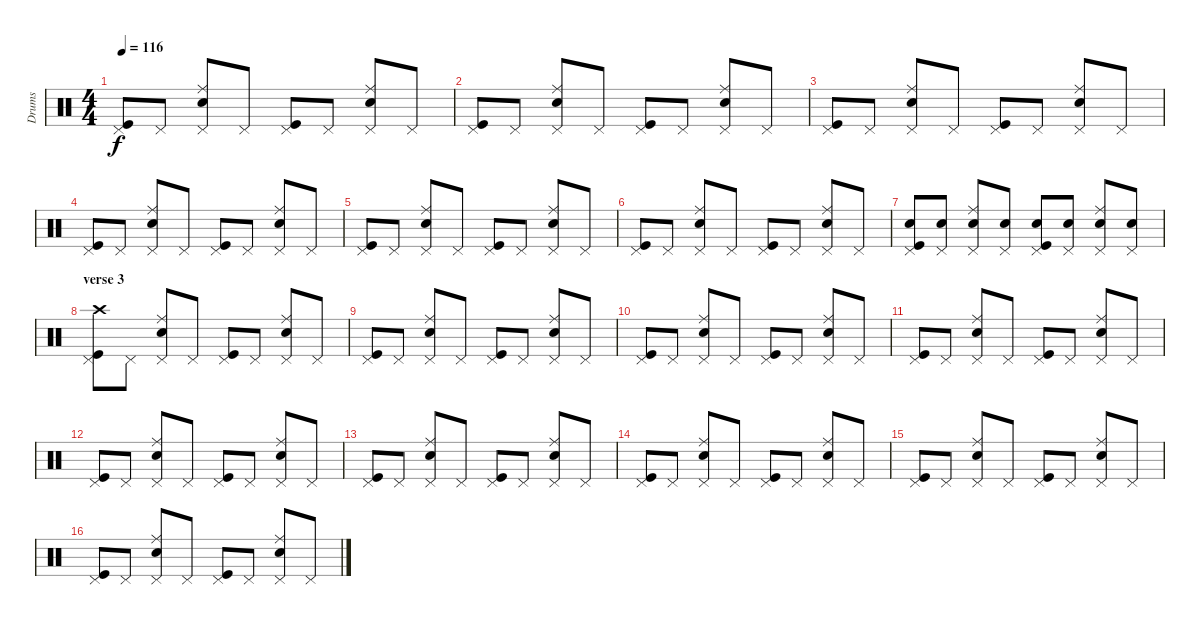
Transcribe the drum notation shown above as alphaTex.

\track ("Drums" "Drums") {instrument percussion}
\staff {score}
\articulation defaults
\ts (4 4)
\tempo 116
\clef neutral
\ks c
("Pedal Hi-Hat (hit)" "Kick (hit)").8{dy f} "Pedal Hi-Hat (hit)".8 ("Ride (middle)" "Electric Snare (hit)" "Pedal Hi-Hat (hit)").8 "Pedal Hi-Hat (hit)".8 ("Pedal Hi-Hat (hit)" "Kick (hit)").8 "Pedal Hi-Hat (hit)".8 ("Ride (middle)" "Electric Snare (hit)" "Pedal Hi-Hat (hit)").8 "Pedal Hi-Hat (hit)".8 |
("Pedal Hi-Hat (hit)" "Kick (hit)").8 "Pedal Hi-Hat (hit)".8 ("Ride (middle)" "Electric Snare (hit)" "Pedal Hi-Hat (hit)").8 "Pedal Hi-Hat (hit)".8 ("Pedal Hi-Hat (hit)" "Kick (hit)").8 "Pedal Hi-Hat (hit)".8 ("Ride (middle)" "Electric Snare (hit)" "Pedal Hi-Hat (hit)").8 "Pedal Hi-Hat (hit)".8 |
("Pedal Hi-Hat (hit)" "Kick (hit)").8 "Pedal Hi-Hat (hit)".8 ("Ride (middle)" "Electric Snare (hit)" "Pedal Hi-Hat (hit)").8 "Pedal Hi-Hat (hit)".8 ("Pedal Hi-Hat (hit)" "Kick (hit)").8 "Pedal Hi-Hat (hit)".8 ("Ride (middle)" "Electric Snare (hit)" "Pedal Hi-Hat (hit)").8 "Pedal Hi-Hat (hit)".8 |
("Pedal Hi-Hat (hit)" "Kick (hit)").8 "Pedal Hi-Hat (hit)".8 ("Ride (middle)" "Electric Snare (hit)" "Pedal Hi-Hat (hit)").8 "Pedal Hi-Hat (hit)".8 ("Pedal Hi-Hat (hit)" "Kick (hit)").8 "Pedal Hi-Hat (hit)".8 ("Ride (middle)" "Electric Snare (hit)" "Pedal Hi-Hat (hit)").8 "Pedal Hi-Hat (hit)".8 |
("Pedal Hi-Hat (hit)" "Kick (hit)").8 "Pedal Hi-Hat (hit)".8 ("Ride (middle)" "Electric Snare (hit)" "Pedal Hi-Hat (hit)").8 "Pedal Hi-Hat (hit)".8 ("Pedal Hi-Hat (hit)" "Kick (hit)").8 "Pedal Hi-Hat (hit)".8 ("Ride (middle)" "Electric Snare (hit)" "Pedal Hi-Hat (hit)").8 "Pedal Hi-Hat (hit)".8 |
("Pedal Hi-Hat (hit)" "Kick (hit)").8 "Pedal Hi-Hat (hit)".8 ("Ride (middle)" "Electric Snare (hit)" "Pedal Hi-Hat (hit)").8 "Pedal Hi-Hat (hit)".8 ("Pedal Hi-Hat (hit)" "Kick (hit)").8 "Pedal Hi-Hat (hit)".8 ("Ride (middle)" "Electric Snare (hit)" "Pedal Hi-Hat (hit)").8 "Pedal Hi-Hat (hit)".8 |
("Electric Snare (hit)" "Pedal Hi-Hat (hit)" "Kick (hit)").8 ("Electric Snare (hit)" "Pedal Hi-Hat (hit)").8 ("Ride (middle)" "Electric Snare (hit)" "Pedal Hi-Hat (hit)").8 ("Electric Snare (hit)" "Pedal Hi-Hat (hit)").8 ("Electric Snare (hit)" "Pedal Hi-Hat (hit)" "Kick (hit)").8 ("Electric Snare (hit)" "Pedal Hi-Hat (hit)").8 ("Ride (middle)" "Electric Snare (hit)" "Pedal Hi-Hat (hit)").8 ("Electric Snare (hit)" "Pedal Hi-Hat (hit)").8 |
\section ("" "verse 3")
("Crash high (hit)" "Pedal Hi-Hat (hit)" "Kick (hit)").8 "Pedal Hi-Hat (hit)".8 ("Ride (middle)" "Electric Snare (hit)" "Pedal Hi-Hat (hit)").8 "Pedal Hi-Hat (hit)".8 ("Pedal Hi-Hat (hit)" "Kick (hit)").8 "Pedal Hi-Hat (hit)".8 ("Ride (middle)" "Electric Snare (hit)" "Pedal Hi-Hat (hit)").8 "Pedal Hi-Hat (hit)".8 |
("Pedal Hi-Hat (hit)" "Kick (hit)").8 "Pedal Hi-Hat (hit)".8 ("Ride (middle)" "Electric Snare (hit)" "Pedal Hi-Hat (hit)").8 "Pedal Hi-Hat (hit)".8 ("Pedal Hi-Hat (hit)" "Kick (hit)").8 "Pedal Hi-Hat (hit)".8 ("Ride (middle)" "Electric Snare (hit)" "Pedal Hi-Hat (hit)").8 "Pedal Hi-Hat (hit)".8 |
("Pedal Hi-Hat (hit)" "Kick (hit)").8 "Pedal Hi-Hat (hit)".8 ("Ride (middle)" "Electric Snare (hit)" "Pedal Hi-Hat (hit)").8 "Pedal Hi-Hat (hit)".8 ("Pedal Hi-Hat (hit)" "Kick (hit)").8 "Pedal Hi-Hat (hit)".8 ("Ride (middle)" "Electric Snare (hit)" "Pedal Hi-Hat (hit)").8 "Pedal Hi-Hat (hit)".8 |
("Pedal Hi-Hat (hit)" "Kick (hit)").8 "Pedal Hi-Hat (hit)".8 ("Ride (middle)" "Electric Snare (hit)" "Pedal Hi-Hat (hit)").8 "Pedal Hi-Hat (hit)".8 ("Pedal Hi-Hat (hit)" "Kick (hit)").8 "Pedal Hi-Hat (hit)".8 ("Ride (middle)" "Electric Snare (hit)" "Pedal Hi-Hat (hit)").8 "Pedal Hi-Hat (hit)".8 |
("Pedal Hi-Hat (hit)" "Kick (hit)").8 "Pedal Hi-Hat (hit)".8 ("Ride (middle)" "Electric Snare (hit)" "Pedal Hi-Hat (hit)").8 "Pedal Hi-Hat (hit)".8 ("Pedal Hi-Hat (hit)" "Kick (hit)").8 "Pedal Hi-Hat (hit)".8 ("Ride (middle)" "Electric Snare (hit)" "Pedal Hi-Hat (hit)").8 "Pedal Hi-Hat (hit)".8 |
("Pedal Hi-Hat (hit)" "Kick (hit)").8 "Pedal Hi-Hat (hit)".8 ("Ride (middle)" "Electric Snare (hit)" "Pedal Hi-Hat (hit)").8 "Pedal Hi-Hat (hit)".8 ("Pedal Hi-Hat (hit)" "Kick (hit)").8 "Pedal Hi-Hat (hit)".8 ("Ride (middle)" "Electric Snare (hit)" "Pedal Hi-Hat (hit)").8 "Pedal Hi-Hat (hit)".8 |
("Pedal Hi-Hat (hit)" "Kick (hit)").8 "Pedal Hi-Hat (hit)".8 ("Ride (middle)" "Electric Snare (hit)" "Pedal Hi-Hat (hit)").8 "Pedal Hi-Hat (hit)".8 ("Pedal Hi-Hat (hit)" "Kick (hit)").8 "Pedal Hi-Hat (hit)".8 ("Ride (middle)" "Electric Snare (hit)" "Pedal Hi-Hat (hit)").8 "Pedal Hi-Hat (hit)".8 |
("Pedal Hi-Hat (hit)" "Kick (hit)").8 "Pedal Hi-Hat (hit)".8 ("Ride (middle)" "Electric Snare (hit)" "Pedal Hi-Hat (hit)").8 "Pedal Hi-Hat (hit)".8 ("Pedal Hi-Hat (hit)" "Kick (hit)").8 "Pedal Hi-Hat (hit)".8 ("Ride (middle)" "Electric Snare (hit)" "Pedal Hi-Hat (hit)").8 "Pedal Hi-Hat (hit)".8 |
("Pedal Hi-Hat (hit)" "Kick (hit)").8 "Pedal Hi-Hat (hit)".8 ("Ride (middle)" "Electric Snare (hit)" "Pedal Hi-Hat (hit)").8 "Pedal Hi-Hat (hit)".8 ("Pedal Hi-Hat (hit)" "Kick (hit)").8 "Pedal Hi-Hat (hit)".8 ("Ride (middle)" "Electric Snare (hit)" "Pedal Hi-Hat (hit)").8 "Pedal Hi-Hat (hit)".8
